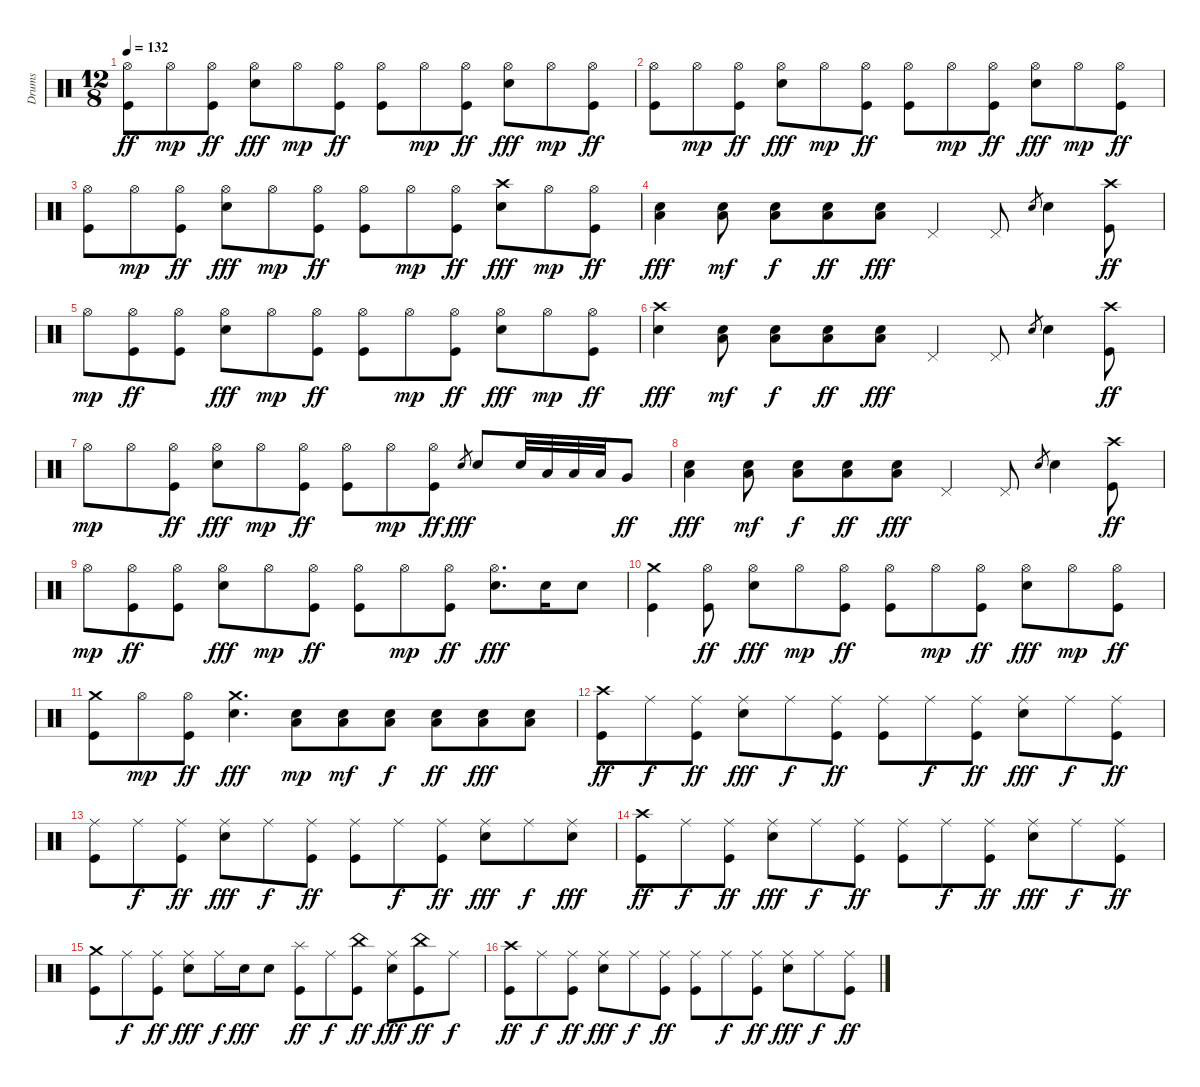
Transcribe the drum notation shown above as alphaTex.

\track ("Drums" "Drums") {instrument percussion}
\staff {score}
\articulation defaults
\ts (12 8)
\tempo 132
\clef neutral
\ks c
("Hi-Hat (open)" "Kick (hit)").8{dy ff} "Hi-Hat (open)".8{dy mp} ("Hi-Hat (open)" "Kick (hit)").8{dy ff} ("Hi-Hat (open)" "Snare (hit) 2").8{dy fff} "Hi-Hat (open)".8{dy mp} ("Hi-Hat (open)" "Kick (hit)").8{dy ff} ("Hi-Hat (open)" "Kick (hit)").8 "Hi-Hat (open)".8{dy mp} ("Hi-Hat (open)" "Kick (hit)").8{dy ff} ("Hi-Hat (open)" "Snare (hit) 2").8{dy fff} "Hi-Hat (open)".8{dy mp} ("Hi-Hat (open)" "Kick (hit)").8{dy ff} |
("Hi-Hat (open)" "Kick (hit)").8 "Hi-Hat (open)".8{dy mp} ("Hi-Hat (open)" "Kick (hit)").8{dy ff} ("Hi-Hat (open)" "Snare (hit) 2").8{dy fff} "Hi-Hat (open)".8{dy mp} ("Hi-Hat (open)" "Kick (hit)").8{dy ff} ("Hi-Hat (open)" "Kick (hit)").8 "Hi-Hat (open)".8{dy mp} ("Hi-Hat (open)" "Kick (hit)").8{dy ff} ("Hi-Hat (open)" "Snare (hit) 2").8{dy fff} "Hi-Hat (open)".8{dy mp} ("Hi-Hat (open)" "Kick (hit)").8{dy ff} |
("Hi-Hat (open)" "Kick (hit)").8 "Hi-Hat (open)".8{dy mp} ("Hi-Hat (open)" "Kick (hit)").8{dy ff} ("Hi-Hat (open)" "Snare (hit) 2").8{dy fff} "Hi-Hat (open)".8{dy mp} ("Hi-Hat (open)" "Kick (hit)").8{dy ff} ("Hi-Hat (open)" "Kick (hit)").8 "Hi-Hat (open)".8{dy mp} ("Hi-Hat (open)" "Kick (hit)").8{dy ff} ("Crash high (hit)" "Snare (hit) 2").8{dy fff} "Hi-Hat (open)".8{dy mp} ("Hi-Hat (open)" "Kick (hit)").8{dy ff} |
("Low Floor Tom (hit)" "Snare (hit) 2").4{dy fff} ("Low Floor Tom (hit)" "Snare (hit) 2").8{dy mf} ("Low Floor Tom (hit)" "Snare (hit) 2").8{dy f} ("Low Floor Tom (hit)" "Snare (hit) 2").8{dy ff} ("Low Floor Tom (hit)" "Snare (hit) 2").8{dy fff} "Pedal Hi-Hat (hit)".4 "Pedal Hi-Hat (hit)".8 "Snare (hit) 2".8{gr} "Snare (hit) 2".4 ("Crash high (hit)" "Kick (hit)").8{dy ff} |
"Hi-Hat (open)".8{dy mp} ("Hi-Hat (open)" "Kick (hit)").8{dy ff} ("Hi-Hat (open)" "Kick (hit)").8 ("Hi-Hat (open)" "Snare (hit) 2").8{dy fff} "Hi-Hat (open)".8{dy mp} ("Hi-Hat (open)" "Kick (hit)").8{dy ff} ("Hi-Hat (open)" "Kick (hit)").8 "Hi-Hat (open)".8{dy mp} ("Hi-Hat (open)" "Kick (hit)").8{dy ff} ("Hi-Hat (open)" "Snare (hit) 2").8{dy fff} "Hi-Hat (open)".8{dy mp} ("Hi-Hat (open)" "Kick (hit)").8{dy ff} |
("Crash high (hit)" "Snare (hit) 2").4{dy fff} ("Low Floor Tom (hit)" "Snare (hit) 2").8{dy mf} ("Low Floor Tom (hit)" "Snare (hit) 2").8{dy f} ("Low Floor Tom (hit)" "Snare (hit) 2").8{dy ff} ("Low Floor Tom (hit)" "Snare (hit) 2").8{dy fff} "Pedal Hi-Hat (hit)".4 "Pedal Hi-Hat (hit)".8 "Snare (hit) 2".8{gr} "Snare (hit) 2".4 ("Crash high (hit)" "Kick (hit)").8{dy ff} |
"Hi-Hat (open)".8{dy mp} "Hi-Hat (open)".8 ("Hi-Hat (open)" "Kick (hit)").8{dy ff} ("Hi-Hat (open)" "Snare (hit) 2").8{dy fff} "Hi-Hat (open)".8{dy mp} ("Hi-Hat (open)" "Kick (hit)").8{dy ff} ("Hi-Hat (open)" "Kick (hit)").8 "Hi-Hat (open)".8{dy mp} ("Hi-Hat (open)" "Kick (hit)").8{dy ff} "Snare (hit) 2".8{gr dy fff} "Snare (hit) 2".8 "Snare (hit) 2".32 "Low Tom (hit)".32 "Low Tom (hit)".32 "Low Tom (hit)".32 "Very Low Tom (hit)".8{dy ff} |
("Low Floor Tom (hit)" "Snare (hit) 2").4{dy fff} ("Low Floor Tom (hit)" "Snare (hit) 2").8{dy mf} ("Low Floor Tom (hit)" "Snare (hit) 2").8{dy f} ("Low Floor Tom (hit)" "Snare (hit) 2").8{dy ff} ("Low Floor Tom (hit)" "Snare (hit) 2").8{dy fff} "Pedal Hi-Hat (hit)".4 "Pedal Hi-Hat (hit)".8 "Snare (hit) 2".8{gr} "Snare (hit) 2".4 ("Crash high (hit)" "Kick (hit)").8{dy ff} |
"Hi-Hat (open)".8{dy mp} ("Hi-Hat (open)" "Kick (hit)").8{dy ff} ("Hi-Hat (open)" "Kick (hit)").8 ("Hi-Hat (open)" "Snare (hit) 2").8{dy fff} "Hi-Hat (open)".8{dy mp} ("Hi-Hat (open)" "Kick (hit)").8{dy ff} ("Hi-Hat (open)" "Kick (hit)").8 "Hi-Hat (open)".8{dy mp} ("Hi-Hat (open)" "Kick (hit)").8{dy ff} ("Hi-Hat (open)" "Snare (hit) 2").8{d dy fff} "Snare (hit) 2".16 "Snare (hit) 2".8 |
("Crash medium (hit)" "Kick (hit)").4 ("Hi-Hat (open)" "Kick (hit)").8{dy ff} ("Hi-Hat (open)" "Snare (hit) 2").8{dy fff} "Hi-Hat (open)".8{dy mp} ("Hi-Hat (open)" "Kick (hit)").8{dy ff} ("Hi-Hat (open)" "Kick (hit)").8 "Hi-Hat (open)".8{dy mp} ("Hi-Hat (open)" "Kick (hit)").8{dy ff} ("Hi-Hat (open)" "Snare (hit) 2").8{dy fff} "Hi-Hat (open)".8{dy mp} ("Hi-Hat (open)" "Kick (hit)").8{dy ff} |
("Crash medium (hit)" "Kick (hit)").8 "Hi-Hat (open)".8{dy mp} ("Hi-Hat (open)" "Kick (hit)").8{dy ff} ("Crash medium (hit)" "Snare (hit) 2").4{d dy fff} ("Low Floor Tom (hit)" "Snare (hit) 2").8{dy mp} ("Low Floor Tom (hit)" "Snare (hit) 2").8{dy mf} ("Low Floor Tom (hit)" "Snare (hit) 2").8{dy f} ("Low Floor Tom (hit)" "Snare (hit) 2").8{dy ff} ("Low Floor Tom (hit)" "Snare (hit) 2").8{dy fff} ("Low Floor Tom (hit)" "Snare (hit) 2").8 |
("Crash high (hit)" "Kick (hit)").8{dy ff} "Ride (middle)".8{dy f} ("Ride (middle)" "Kick (hit)").8{dy ff} ("Ride (middle)" "Snare (hit) 2").8{dy fff} "Ride (middle)".8{dy f} ("Ride (middle)" "Kick (hit)").8{dy ff} ("Ride (middle)" "Kick (hit)").8 "Ride (middle)".8{dy f} ("Ride (middle)" "Kick (hit)").8{dy ff} ("Ride (middle)" "Snare (hit) 2").8{dy fff} "Ride (middle)".8{dy f} ("Ride (middle)" "Kick (hit)").8{dy ff} |
("Ride (middle)" "Kick (hit)").8 "Ride (middle)".8{dy f} ("Ride (middle)" "Kick (hit)").8{dy ff} ("Ride (middle)" "Snare (hit) 2").8{dy fff} "Ride (middle)".8{dy f} ("Ride (middle)" "Kick (hit)").8{dy ff} ("Ride (middle)" "Kick (hit)").8 "Ride (middle)".8{dy f} ("Ride (middle)" "Kick (hit)").8{dy ff} ("Ride (middle)" "Snare (hit) 2").8{dy fff} "Ride (middle)".8{dy f} ("Ride (middle)" "Snare (hit) 2").8{dy fff} |
("Crash high (hit)" "Kick (hit)").8{dy ff} "Ride (middle)".8{dy f} ("Ride (middle)" "Kick (hit)").8{dy ff} ("Ride (middle)" "Snare (hit) 2").8{dy fff} "Ride (middle)".8{dy f} ("Ride (middle)" "Kick (hit)").8{dy ff} ("Ride (middle)" "Kick (hit)").8 "Ride (middle)".8{dy f} ("Ride (middle)" "Kick (hit)").8{dy ff} ("Ride (middle)" "Snare (hit) 2").8{dy fff} "Ride (middle)".8{dy f} ("Ride (middle)" "Kick (hit)").8{dy ff} |
("Crash medium (hit)" "Kick (hit)").8 "Ride (middle)".8{dy f} ("Ride (middle)" "Kick (hit)").8{dy ff} ("Ride (middle)" "Snare (hit) 2").8{dy fff} "Ride (middle)".16{dy f} "Snare (hit) 2".16{dy fff} "Snare (hit) 2".8 ("Splash (hit)" "Kick (hit)").8{dy ff} "Ride (middle)".8{dy f} ("China (hit)" "Kick (hit)").8{dy ff} ("Ride (middle)" "Snare (hit) 2").8{dy fff} ("China (hit)" "Kick (hit)").8{dy ff} "Ride (middle)".8{dy f} |
("Crash high (hit)" "Kick (hit)").8{dy ff} "Ride (middle)".8{dy f} ("Ride (middle)" "Kick (hit)").8{dy ff} ("Ride (middle)" "Snare (hit) 2").8{dy fff} "Ride (middle)".8{dy f} ("Ride (middle)" "Kick (hit)").8{dy ff} ("Ride (middle)" "Kick (hit)").8 "Ride (middle)".8{dy f} ("Ride (middle)" "Kick (hit)").8{dy ff} ("Ride (middle)" "Snare (hit) 2").8{dy fff} "Ride (middle)".8{dy f} ("Ride (middle)" "Kick (hit)").8{dy ff}
